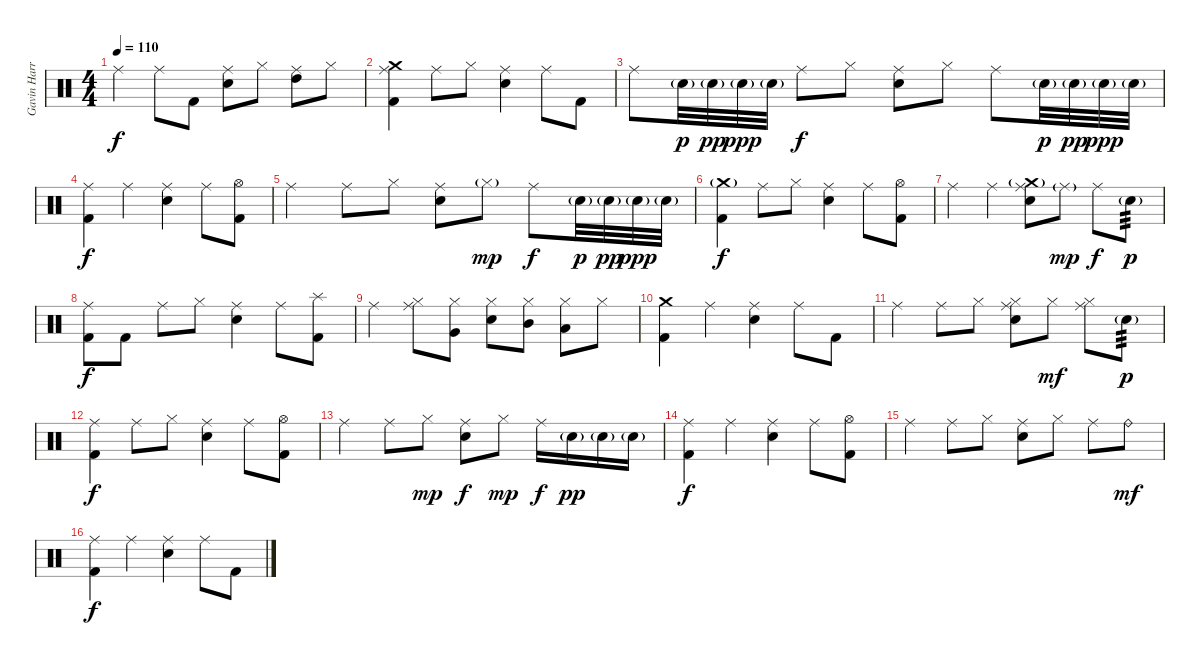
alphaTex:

\track ("Gavin Harrison - Drums" "Gavin Harr") {instrument percussion}
\staff {score}
\articulation defaults
\ts (4 4)
\tempo 110
\clef neutral
\ks c "Ride (middle)".4{dy f} "Ride (middle)".8 "Kick (hit) 2".8
("Ride (middle)" "Electric Snare (hit)").8 "Hi-Hat (closed)".8 ("Ride (middle)" "High Tom (hit)").8 "Hi-Hat (closed)".8 |
("Ride (middle)" "Crash medium (hit)" "Kick (hit) 2").4 "Ride (middle)".8 "Hi-Hat (closed)".8 ("Ride (middle)" "Electric Snare (hit)").4 "Ride (middle)".8 "Kick (hit) 2".8 |
"Ride (middle)".8 "Electric Snare (hit)"{g}.32{dy p} "Electric Snare (hit)"{g}.32{dy pp} "Electric Snare (hit)"{g}.32{dy ppp} "Electric Snare (hit)"{g}.32 "Ride (middle)".8{dy f} "Hi-Hat (closed)".8 ("Ride (middle)" "Electric Snare (hit)").8 "Hi-Hat (closed)".8 "Ride (middle)".8 "Electric Snare (hit)"{g}.32{dy p} "Electric Snare (hit)"{g}.32{dy pp} "Electric Snare (hit)"{g}.32{dy ppp} "Electric Snare (hit)"{g}.32 |
("Ride (middle)" "Kick (hit) 2").4{dy f} "Ride (middle)".4 ("Ride (middle)" "Electric Snare (hit)").4 "Ride (middle)".8 ("Hi-Hat (open)" "Kick (hit) 2").8 |
"Ride (middle)".4 "Ride (middle)".8 "Hi-Hat (closed)".8 ("Ride (middle)" "Electric Snare (hit)").8 "Hi-Hat (closed)"{g}.8{dy mp} "Ride (middle)".8{dy f} "Electric Snare (hit)"{g}.32{dy p} "Electric Snare (hit)"{g}.32{dy pp} "Electric Snare (hit)"{g}.32{dy ppp} "Electric Snare (hit)"{g}.32 |
("Crash medium (hit)"{g} "Kick (hit) 2").4{dy f} "Ride (middle)".8 "Hi-Hat (closed)".8 ("Ride (middle)" "Electric Snare (hit)").4 "Ride (middle)".8 ("Hi-Hat (open)" "Kick (hit) 2").8 |
"Ride (middle)".4 "Ride (middle)".4 ("Ride (middle)" "Crash medium (hit)"{g} "Electric Snare (hit)").8 "Ride (middle)"{g}.8{dy mp} "Ride (middle)".8{dy f} "Electric Snare (hit)"{g}.8{tp 3 dy p} |
("Ride (middle)" "Kick (hit) 2").8{dy f} "Kick (hit) 2".8 "Ride (middle)".8 "Hi-Hat (closed)".8 ("Ride (middle)" "Electric Snare (hit)").4 "Ride (middle)".8 ("Splash (hit)" "Kick (hit) 2").8 |
"Ride (middle)".4 ("Ride (middle)" "Hi-Hat (closed)").8 ("Hi-Hat (closed)" "Very Low Tom (hit)").8 ("Hi-Hat (closed)" "Electric Snare (hit)").8 ("Hi-Hat (closed)" "Mid Tom (hit)").8 ("Hi-Hat (closed)" "Low Tom (hit)").8 "Hi-Hat (closed)".8 |
("Crash medium (hit)" "Kick (hit) 2").4 "Ride (middle)".4 ("Ride (middle)" "Electric Snare (hit)").4 "Ride (middle)".8 "Kick (hit) 2".8 |
"Ride (middle)".4 "Ride (middle)".8 "Hi-Hat (closed)".8 ("Ride (middle)" "Hi-Hat (closed)" "Electric Snare (hit)").8 "Hi-Hat (closed)".8{dy mf} ("Ride (middle)" "Hi-Hat (closed)").8 "Electric Snare (hit)"{g}.8{tp 3 dy p} |
("Ride (middle)" "Kick (hit) 2").4{dy f} "Ride (middle)".8 "Hi-Hat (closed)".8 ("Ride (middle)" "Electric Snare (hit)").4 "Ride (middle)".8 ("Hi-Hat (open)" "Kick (hit) 2").8 |
"Ride (middle)".4 "Ride (middle)".8 "Hi-Hat (closed)".8{dy mp} ("Ride (middle)" "Electric Snare (hit)").8{dy f} "Hi-Hat (closed)".8{dy mp} "Ride (middle)".16{dy f} "Electric Snare (hit)"{g}.16{dy pp} "Electric Snare (hit)"{g}.16 "Electric Snare (hit)"{g}.16 |
("Ride (middle)" "Kick (hit) 2").4{dy f} "Ride (middle)".4 ("Ride (middle)" "Electric Snare (hit)").4 "Ride (middle)".8 ("Hi-Hat (open)" "Kick (hit) 2").8 |
"Ride (middle)".4 "Ride (middle)".8 "Hi-Hat (closed)".8 ("Ride (middle)" "Electric Snare (hit)").8 "Hi-Hat (closed)".8 "Ride (middle)".8 "Ride (bell)".8{dy mf} |
("Ride (middle)" "Kick (hit) 2").4{dy f} "Ride (middle)".4 ("Ride (middle)" "Electric Snare (hit)").4 "Ride (middle)".8 "Kick (hit) 2".8
